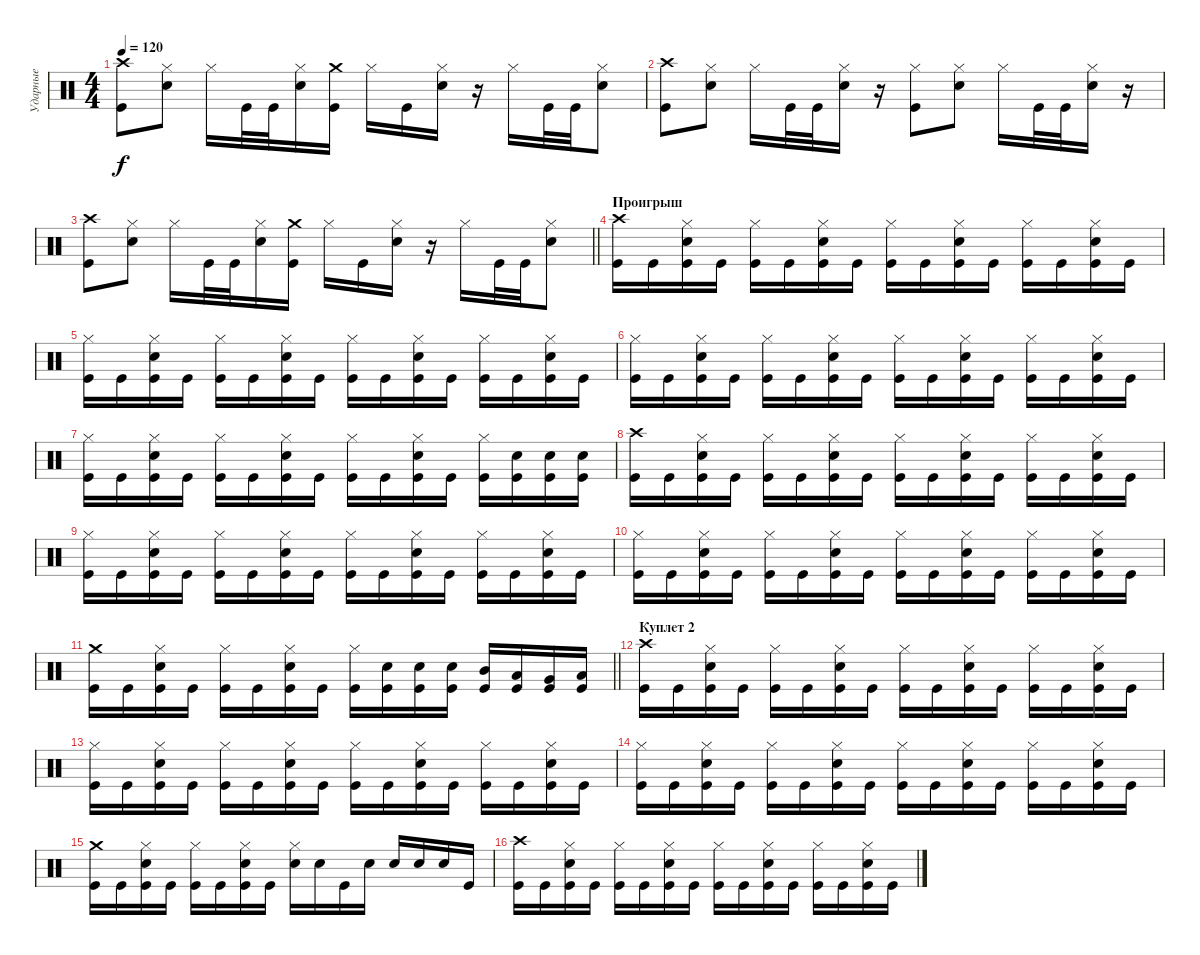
\track ("Ударные" "Ударные") {instrument percussion}
\staff {score}
\articulation defaults
\ts (4 4)
\tempo 120
\clef neutral
\ks c
("Crash high (hit)" "Kick (hit)").8{dy f} ("Hi-Hat (closed)" "Snare (hit) 2").8 "Hi-Hat (closed)".16 "Kick (hit)".32 "Kick (hit)".32 ("Hi-Hat (closed)" "Snare (hit) 2").16 ("Crash medium (hit)" "Kick (hit)").16 "Hi-Hat (closed)".16 "Kick (hit)".16 ("Hi-Hat (closed)" "Snare (hit) 2").16 r.16 "Hi-Hat (closed)".16 "Kick (hit)".32 "Kick (hit)".32 ("Hi-Hat (closed)" "Snare (hit) 2").8 |
("Crash high (hit)" "Kick (hit)").8 ("Hi-Hat (closed)" "Snare (hit) 2").8 "Hi-Hat (closed)".16 "Kick (hit)".32 "Kick (hit)".32 ("Hi-Hat (closed)" "Snare (hit) 2").16 r.16 ("Hi-Hat (closed)" "Kick (hit)").8 ("Hi-Hat (closed)" "Snare (hit) 2").8 "Hi-Hat (closed)".16 "Kick (hit)".32 "Kick (hit)".32 ("Hi-Hat (closed)" "Snare (hit) 2").16 r.16 |
\barLineRight lightlight
("Crash high (hit)" "Kick (hit)").8 ("Hi-Hat (closed)" "Snare (hit) 2").8 "Hi-Hat (closed)".16 "Kick (hit)".32 "Kick (hit)".32 ("Hi-Hat (closed)" "Snare (hit) 2").16 ("Crash medium (hit)" "Kick (hit)").16 "Hi-Hat (closed)".16 "Kick (hit)".16 ("Hi-Hat (closed)" "Snare (hit) 2").16 r.16 "Hi-Hat (closed)".16 "Kick (hit)".32 "Kick (hit)".32 ("Hi-Hat (closed)" "Snare (hit) 2").8 |
\section ("" "Проигрыш")
("Crash high (hit)" "Kick (hit)").16 "Kick (hit)".16 ("Hi-Hat (closed)" "Snare (hit) 2" "Kick (hit)").16 "Kick (hit)".16 ("Hi-Hat (closed)" "Kick (hit)").16 "Kick (hit)".16 ("Hi-Hat (closed)" "Snare (hit) 2" "Kick (hit)").16 "Kick (hit)".16 ("Hi-Hat (closed)" "Kick (hit)").16 "Kick (hit)".16 ("Hi-Hat (closed)" "Snare (hit) 2" "Kick (hit)").16 "Kick (hit)".16 ("Hi-Hat (closed)" "Kick (hit)").16 "Kick (hit)".16 ("Hi-Hat (closed)" "Snare (hit) 2" "Kick (hit)").16 "Kick (hit)".16 |
("Hi-Hat (closed)" "Kick (hit)").16 "Kick (hit)".16 ("Hi-Hat (closed)" "Snare (hit) 2" "Kick (hit)").16 "Kick (hit)".16 ("Hi-Hat (closed)" "Kick (hit)").16 "Kick (hit)".16 ("Hi-Hat (closed)" "Snare (hit) 2" "Kick (hit)").16 "Kick (hit)".16 ("Hi-Hat (closed)" "Kick (hit)").16 "Kick (hit)".16 ("Hi-Hat (closed)" "Snare (hit) 2" "Kick (hit)").16 "Kick (hit)".16 ("Hi-Hat (closed)" "Kick (hit)").16 "Kick (hit)".16 ("Hi-Hat (closed)" "Snare (hit) 2" "Kick (hit)").16 "Kick (hit)".16 |
("Hi-Hat (closed)" "Kick (hit)").16 "Kick (hit)".16 ("Hi-Hat (closed)" "Snare (hit) 2" "Kick (hit)").16 "Kick (hit)".16 ("Hi-Hat (closed)" "Kick (hit)").16 "Kick (hit)".16 ("Hi-Hat (closed)" "Snare (hit) 2" "Kick (hit)").16 "Kick (hit)".16 ("Hi-Hat (closed)" "Kick (hit)").16 "Kick (hit)".16 ("Hi-Hat (closed)" "Snare (hit) 2" "Kick (hit)").16 "Kick (hit)".16 ("Hi-Hat (closed)" "Kick (hit)").16 "Kick (hit)".16 ("Hi-Hat (closed)" "Snare (hit) 2" "Kick (hit)").16 "Kick (hit)".16 |
("Hi-Hat (closed)" "Kick (hit)").16 "Kick (hit)".16 ("Hi-Hat (closed)" "Snare (hit) 2" "Kick (hit)").16 "Kick (hit)".16 ("Hi-Hat (closed)" "Kick (hit)").16 "Kick (hit)".16 ("Hi-Hat (closed)" "Snare (hit) 2" "Kick (hit)").16 "Kick (hit)".16 ("Hi-Hat (closed)" "Kick (hit)").16 "Kick (hit)".16 ("Hi-Hat (closed)" "Snare (hit) 2" "Kick (hit)").16 "Kick (hit)".16 ("Hi-Hat (closed)" "Kick (hit)").16 ("Snare (hit) 2" "Kick (hit)").16 ("Snare (hit) 2" "Kick (hit)").16 ("Snare (hit) 2" "Kick (hit)").16 |
("Crash high (hit)" "Kick (hit)").16 "Kick (hit)".16 ("Hi-Hat (closed)" "Snare (hit) 2" "Kick (hit)").16 "Kick (hit)".16 ("Hi-Hat (closed)" "Kick (hit)").16 "Kick (hit)".16 ("Hi-Hat (closed)" "Snare (hit) 2" "Kick (hit)").16 "Kick (hit)".16 ("Hi-Hat (closed)" "Kick (hit)").16 "Kick (hit)".16 ("Hi-Hat (closed)" "Snare (hit) 2" "Kick (hit)").16 "Kick (hit)".16 ("Hi-Hat (closed)" "Kick (hit)").16 "Kick (hit)".16 ("Hi-Hat (closed)" "Snare (hit) 2" "Kick (hit)").16 "Kick (hit)".16 |
("Hi-Hat (closed)" "Kick (hit)").16 "Kick (hit)".16 ("Hi-Hat (closed)" "Snare (hit) 2" "Kick (hit)").16 "Kick (hit)".16 ("Hi-Hat (closed)" "Kick (hit)").16 "Kick (hit)".16 ("Hi-Hat (closed)" "Snare (hit) 2" "Kick (hit)").16 "Kick (hit)".16 ("Hi-Hat (closed)" "Kick (hit)").16 "Kick (hit)".16 ("Hi-Hat (closed)" "Snare (hit) 2" "Kick (hit)").16 "Kick (hit)".16 ("Hi-Hat (closed)" "Kick (hit)").16 "Kick (hit)".16 ("Hi-Hat (closed)" "Snare (hit) 2" "Kick (hit)").16 "Kick (hit)".16 |
("Hi-Hat (closed)" "Kick (hit)").16 "Kick (hit)".16 ("Hi-Hat (closed)" "Snare (hit) 2" "Kick (hit)").16 "Kick (hit)".16 ("Hi-Hat (closed)" "Kick (hit)").16 "Kick (hit)".16 ("Hi-Hat (closed)" "Snare (hit) 2" "Kick (hit)").16 "Kick (hit)".16 ("Hi-Hat (closed)" "Kick (hit)").16 "Kick (hit)".16 ("Hi-Hat (closed)" "Snare (hit) 2" "Kick (hit)").16 "Kick (hit)".16 ("Hi-Hat (closed)" "Kick (hit)").16 "Kick (hit)".16 ("Hi-Hat (closed)" "Snare (hit) 2" "Kick (hit)").16 "Kick (hit)".16 |
\barLineRight lightlight
("Crash medium (hit)" "Kick (hit)").16 "Kick (hit)".16 ("Hi-Hat (closed)" "Snare (hit) 2" "Kick (hit)").16 "Kick (hit)".16 ("Hi-Hat (closed)" "Kick (hit)").16 "Kick (hit)".16 ("Hi-Hat (closed)" "Snare (hit) 2" "Kick (hit)").16 "Kick (hit)".16 ("Hi-Hat (closed)" "Kick (hit)").16 ("Snare (hit) 2" "Kick (hit)").16 ("Snare (hit) 2" "Kick (hit)").16 ("Snare (hit) 2" "Kick (hit)").16 ("Mid Tom (hit)" "Kick (hit)").16 ("Low Tom (hit)" "Kick (hit)").16 ("Very Low Tom (hit)" "Kick (hit)").16 ("Low Floor Tom (hit)" "Kick (hit)").16 |
\section ("" "Куплет 2")
("Crash high (hit)" "Kick (hit)").16 "Kick (hit)".16 ("Hi-Hat (closed)" "Snare (hit) 2" "Kick (hit)").16 "Kick (hit)".16 ("Hi-Hat (closed)" "Kick (hit)").16 "Kick (hit)".16 ("Hi-Hat (closed)" "Snare (hit) 2" "Kick (hit)").16 "Kick (hit)".16 ("Hi-Hat (closed)" "Kick (hit)").16 "Kick (hit)".16 ("Hi-Hat (closed)" "Snare (hit) 2" "Kick (hit)").16 "Kick (hit)".16 ("Hi-Hat (closed)" "Kick (hit)").16 "Kick (hit)".16 ("Hi-Hat (closed)" "Snare (hit) 2" "Kick (hit)").16 "Kick (hit)".16 |
("Hi-Hat (closed)" "Kick (hit)").16 "Kick (hit)".16 ("Hi-Hat (closed)" "Snare (hit) 2" "Kick (hit)").16 "Kick (hit)".16 ("Hi-Hat (closed)" "Kick (hit)").16 "Kick (hit)".16 ("Hi-Hat (closed)" "Snare (hit) 2" "Kick (hit)").16 "Kick (hit)".16 ("Hi-Hat (closed)" "Kick (hit)").16 "Kick (hit)".16 ("Hi-Hat (closed)" "Snare (hit) 2" "Kick (hit)").16 "Kick (hit)".16 ("Hi-Hat (closed)" "Kick (hit)").16 "Kick (hit)".16 ("Hi-Hat (closed)" "Snare (hit) 2" "Kick (hit)").16 "Kick (hit)".16 |
("Hi-Hat (closed)" "Kick (hit)").16 "Kick (hit)".16 ("Hi-Hat (closed)" "Snare (hit) 2" "Kick (hit)").16 "Kick (hit)".16 ("Hi-Hat (closed)" "Kick (hit)").16 "Kick (hit)".16 ("Hi-Hat (closed)" "Snare (hit) 2" "Kick (hit)").16 "Kick (hit)".16 ("Hi-Hat (closed)" "Kick (hit)").16 "Kick (hit)".16 ("Hi-Hat (closed)" "Snare (hit) 2" "Kick (hit)").16 "Kick (hit)".16 ("Hi-Hat (closed)" "Kick (hit)").16 "Kick (hit)".16 ("Hi-Hat (closed)" "Snare (hit) 2" "Kick (hit)").16 "Kick (hit)".16 |
("Crash medium (hit)" "Kick (hit)").16 "Kick (hit)".16 ("Hi-Hat (closed)" "Snare (hit) 2" "Kick (hit)").16 "Kick (hit)".16 ("Hi-Hat (closed)" "Kick (hit)").16 "Kick (hit)".16 ("Hi-Hat (closed)" "Snare (hit) 2" "Kick (hit)").16 "Kick (hit)".16 ("Hi-Hat (closed)" "Snare (hit) 2").16 "Snare (hit) 2".16 "Kick (hit)".16 "Snare (hit) 2".16 "Snare (hit) 2".16 "Snare (hit) 2".16 "Snare (hit) 2".16 "Kick (hit)".16 |
("Crash high (hit)" "Kick (hit)").16 "Kick (hit)".16 ("Hi-Hat (closed)" "Snare (hit) 2" "Kick (hit)").16 "Kick (hit)".16 ("Hi-Hat (closed)" "Kick (hit)").16 "Kick (hit)".16 ("Hi-Hat (closed)" "Snare (hit) 2" "Kick (hit)").16 "Kick (hit)".16 ("Hi-Hat (closed)" "Kick (hit)").16 "Kick (hit)".16 ("Hi-Hat (closed)" "Snare (hit) 2" "Kick (hit)").16 "Kick (hit)".16 ("Hi-Hat (closed)" "Kick (hit)").16 "Kick (hit)".16 ("Hi-Hat (closed)" "Snare (hit) 2" "Kick (hit)").16 "Kick (hit)".16
